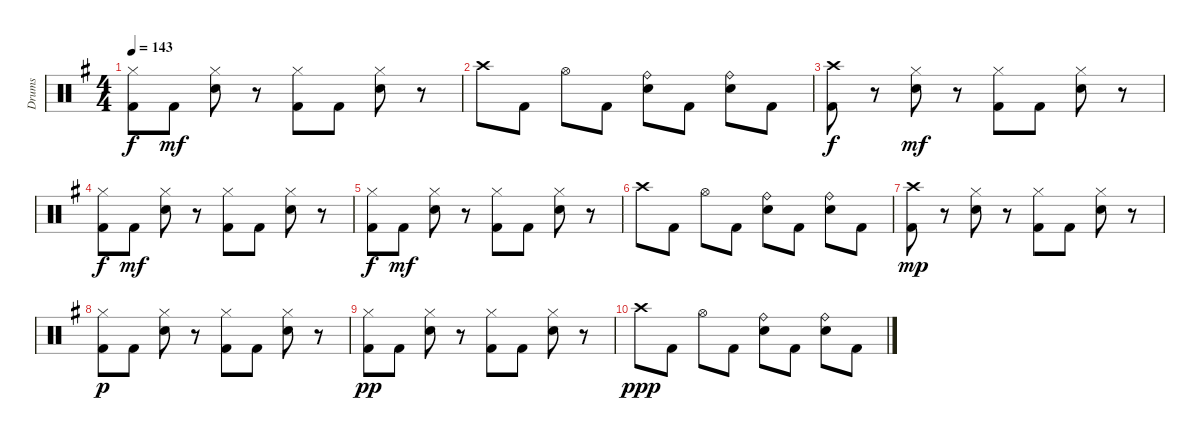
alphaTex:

\track ("Drums" "Drums") {instrument percussion}
\staff {score}
\articulation defaults
\ts (4 4)
\tempo 143
\clef neutral
\ks g
("Hi-Hat (closed)" "Kick (hit) 2").8{dy f} "Kick (hit) 2".8{dy mf} ("Hi-Hat (closed)" "Electric Snare (hit)").8 r.8 ("Hi-Hat (closed)" "Kick (hit) 2").8 "Kick (hit) 2".8 ("Hi-Hat (closed)" "Electric Snare (hit)").8 r.8 |
"Crash high (hit)".8 "Kick (hit) 2".8 "Hi-Hat (open)".8 "Kick (hit) 2".8 ("Ride (bell)" "Electric Snare (hit)").8 "Kick (hit) 2".8 ("Ride (bell)" "Electric Snare (hit)").8 "Kick (hit) 2".8 |
("Crash high (hit)" "Kick (hit) 2").8{dy f} r.8 ("Hi-Hat (closed)" "Electric Snare (hit)").8{dy mf} r.8 ("Hi-Hat (closed)" "Kick (hit) 2").8 "Kick (hit) 2".8 ("Hi-Hat (closed)" "Electric Snare (hit)").8 r.8 |
("Hi-Hat (closed)" "Kick (hit) 2").8{dy f} "Kick (hit) 2".8{dy mf} ("Hi-Hat (closed)" "Electric Snare (hit)").8 r.8 ("Hi-Hat (closed)" "Kick (hit) 2").8 "Kick (hit) 2".8 ("Hi-Hat (closed)" "Electric Snare (hit)").8 r.8 |
("Hi-Hat (closed)" "Kick (hit) 2").8{dy f} "Kick (hit) 2".8{dy mf} ("Hi-Hat (closed)" "Electric Snare (hit)").8 r.8 ("Hi-Hat (closed)" "Kick (hit) 2").8 "Kick (hit) 2".8 ("Hi-Hat (closed)" "Electric Snare (hit)").8 r.8 |
"Crash high (hit)".8 "Kick (hit) 2".8 "Hi-Hat (open)".8 "Kick (hit) 2".8 ("Ride (bell)" "Electric Snare (hit)").8 "Kick (hit) 2".8 ("Ride (bell)" "Electric Snare (hit)").8 "Kick (hit) 2".8 |
("Crash high (hit)" "Kick (hit) 2").8{dy mp} r.8 ("Hi-Hat (closed)" "Electric Snare (hit)").8 r.8 ("Hi-Hat (closed)" "Kick (hit) 2").8 "Kick (hit) 2".8 ("Hi-Hat (closed)" "Electric Snare (hit)").8 r.8 |
("Hi-Hat (closed)" "Kick (hit) 2").8{dy p} "Kick (hit) 2".8 ("Hi-Hat (closed)" "Electric Snare (hit)").8 r.8 ("Hi-Hat (closed)" "Kick (hit) 2").8 "Kick (hit) 2".8 ("Hi-Hat (closed)" "Electric Snare (hit)").8 r.8 |
("Hi-Hat (closed)" "Kick (hit) 2").8{dy pp} "Kick (hit) 2".8 ("Hi-Hat (closed)" "Electric Snare (hit)").8 r.8 ("Hi-Hat (closed)" "Kick (hit) 2").8 "Kick (hit) 2".8 ("Hi-Hat (closed)" "Electric Snare (hit)").8 r.8 |
"Crash high (hit)".8{dy ppp} "Kick (hit) 2".8 "Hi-Hat (open)".8 "Kick (hit) 2".8 ("Ride (bell)" "Electric Snare (hit)").8 "Kick (hit) 2".8 ("Ride (bell)" "Electric Snare (hit)").8 "Kick (hit) 2".8
